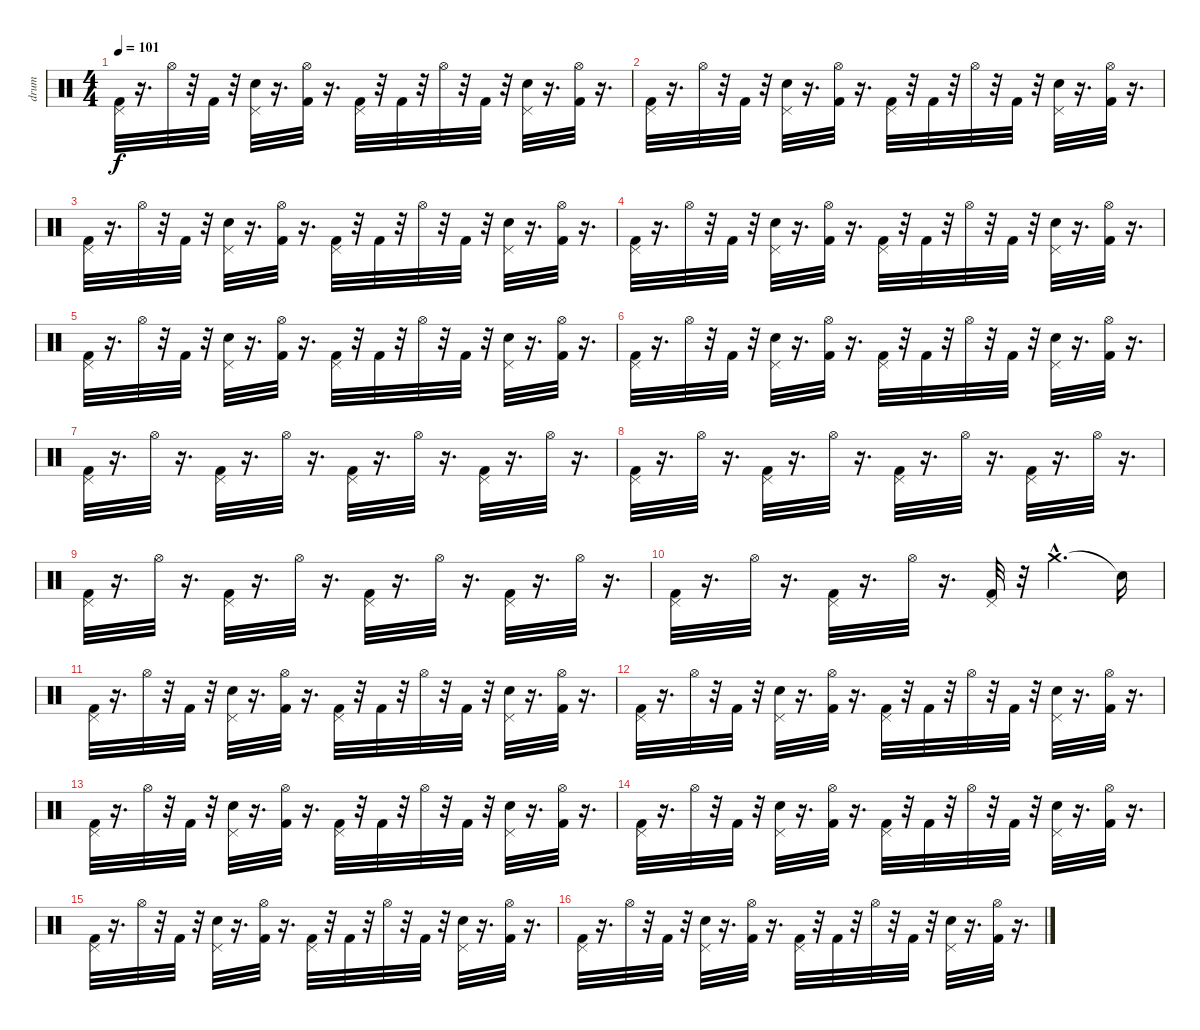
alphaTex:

\track ("drum" "drum") {instrument percussion}
\staff {score}
\articulation defaults
\ts (4 4)
\tempo 101
\clef neutral
\ks c
("Kick (hit) 2" "Pedal Hi-Hat (hit)").32{dy f} r.16{d} "Hi-Hat (open)".32 r.32 "Kick (hit) 2".32 r.32 ("Electric Snare (hit)" "Pedal Hi-Hat (hit)").32 r.16{d} ("Kick (hit) 2" "Hi-Hat (open)").32 r.16{d} ("Kick (hit) 2" "Pedal Hi-Hat (hit)").32 r.32 "Kick (hit) 2".32 r.32 "Hi-Hat (open)".32 r.32 "Kick (hit) 2".32 r.32 ("Electric Snare (hit)" "Pedal Hi-Hat (hit)").32 r.16{d} ("Kick (hit) 2" "Hi-Hat (open)").32 r.16{d} |
("Kick (hit) 2" "Pedal Hi-Hat (hit)").32 r.16{d} "Hi-Hat (open)".32 r.32 "Kick (hit) 2".32 r.32 ("Electric Snare (hit)" "Pedal Hi-Hat (hit)").32 r.16{d} ("Kick (hit) 2" "Hi-Hat (open)").32 r.16{d} ("Kick (hit) 2" "Pedal Hi-Hat (hit)").32 r.32 "Kick (hit) 2".32 r.32 "Hi-Hat (open)".32 r.32 "Kick (hit) 2".32 r.32 ("Electric Snare (hit)" "Pedal Hi-Hat (hit)").32 r.16{d} ("Kick (hit) 2" "Hi-Hat (open)").32 r.16{d} |
("Kick (hit) 2" "Pedal Hi-Hat (hit)").32 r.16{d} "Hi-Hat (open)".32 r.32 "Kick (hit) 2".32 r.32 ("Electric Snare (hit)" "Pedal Hi-Hat (hit)").32 r.16{d} ("Kick (hit) 2" "Hi-Hat (open)").32 r.16{d} ("Kick (hit) 2" "Pedal Hi-Hat (hit)").32 r.32 "Kick (hit) 2".32 r.32 "Hi-Hat (open)".32 r.32 "Kick (hit) 2".32 r.32 ("Electric Snare (hit)" "Pedal Hi-Hat (hit)").32 r.16{d} ("Kick (hit) 2" "Hi-Hat (open)").32 r.16{d} |
("Kick (hit) 2" "Pedal Hi-Hat (hit)").32 r.16{d} "Hi-Hat (open)".32 r.32 "Kick (hit) 2".32 r.32 ("Electric Snare (hit)" "Pedal Hi-Hat (hit)").32 r.16{d} ("Kick (hit) 2" "Hi-Hat (open)").32 r.16{d} ("Kick (hit) 2" "Pedal Hi-Hat (hit)").32 r.32 "Kick (hit) 2".32 r.32 "Hi-Hat (open)".32 r.32 "Kick (hit) 2".32 r.32 ("Electric Snare (hit)" "Pedal Hi-Hat (hit)").32 r.16{d} ("Kick (hit) 2" "Hi-Hat (open)").32 r.16{d} |
("Kick (hit) 2" "Pedal Hi-Hat (hit)").32 r.16{d} "Hi-Hat (open)".32 r.32 "Kick (hit) 2".32 r.32 ("Electric Snare (hit)" "Pedal Hi-Hat (hit)").32 r.16{d} ("Kick (hit) 2" "Hi-Hat (open)").32 r.16{d} ("Kick (hit) 2" "Pedal Hi-Hat (hit)").32 r.32 "Kick (hit) 2".32 r.32 "Hi-Hat (open)".32 r.32 "Kick (hit) 2".32 r.32 ("Electric Snare (hit)" "Pedal Hi-Hat (hit)").32 r.16{d} ("Kick (hit) 2" "Hi-Hat (open)").32 r.16{d} |
("Kick (hit) 2" "Pedal Hi-Hat (hit)").32 r.16{d} "Hi-Hat (open)".32 r.32 "Kick (hit) 2".32 r.32 ("Electric Snare (hit)" "Pedal Hi-Hat (hit)").32 r.16{d} ("Kick (hit) 2" "Hi-Hat (open)").32 r.16{d} ("Kick (hit) 2" "Pedal Hi-Hat (hit)").32 r.32 "Kick (hit) 2".32 r.32 "Hi-Hat (open)".32 r.32 "Kick (hit) 2".32 r.32 ("Electric Snare (hit)" "Pedal Hi-Hat (hit)").32 r.16{d} ("Kick (hit) 2" "Hi-Hat (open)").32 r.16{d} |
("Pedal Hi-Hat (hit)" "Kick (hit) 2").32 r.16{d} "Hi-Hat (open)".32 r.16{d} ("Pedal Hi-Hat (hit)" "Kick (hit) 2").32 r.16{d} "Hi-Hat (open)".32 r.16{d} ("Pedal Hi-Hat (hit)" "Kick (hit) 2").32 r.16{d} "Hi-Hat (open)".32 r.16{d} ("Pedal Hi-Hat (hit)" "Kick (hit) 2").32 r.16{d} "Hi-Hat (open)".32 r.16{d} |
("Pedal Hi-Hat (hit)" "Kick (hit) 2").32 r.16{d} "Hi-Hat (open)".32 r.16{d} ("Pedal Hi-Hat (hit)" "Kick (hit) 2").32 r.16{d} "Hi-Hat (open)".32 r.16{d} ("Pedal Hi-Hat (hit)" "Kick (hit) 2").32 r.16{d} "Hi-Hat (open)".32 r.16{d} ("Pedal Hi-Hat (hit)" "Kick (hit) 2").32 r.16{d} "Hi-Hat (open)".32 r.16{d} |
("Pedal Hi-Hat (hit)" "Kick (hit) 2").32 r.16{d} "Hi-Hat (open)".32 r.16{d} ("Pedal Hi-Hat (hit)" "Kick (hit) 2").32 r.16{d} "Hi-Hat (open)".32 r.16{d} ("Pedal Hi-Hat (hit)" "Kick (hit) 2").32 r.16{d} "Hi-Hat (open)".32 r.16{d} ("Pedal Hi-Hat (hit)" "Kick (hit) 2").32 r.16{d} "Hi-Hat (open)".32 r.16{d} |
("Pedal Hi-Hat (hit)" "Kick (hit) 2").32 r.16{d} "Hi-Hat (open)".32 r.16{d} ("Pedal Hi-Hat (hit)" "Kick (hit) 2").32 r.16{d} "Hi-Hat (open)".32 r.16{d} ("Pedal Hi-Hat (hit)" "Kick (hit) 2").32 r.32 "Crash medium (hit)"{hac}.4{d} "Snare (hit)"{t}.16 |
("Kick (hit) 2" "Pedal Hi-Hat (hit)").32 r.16{d} "Hi-Hat (open)".32 r.32 "Kick (hit) 2".32 r.32 ("Electric Snare (hit)" "Pedal Hi-Hat (hit)").32 r.16{d} ("Kick (hit) 2" "Hi-Hat (open)").32 r.16{d} ("Kick (hit) 2" "Pedal Hi-Hat (hit)").32 r.32 "Kick (hit) 2".32 r.32 "Hi-Hat (open)".32 r.32 "Kick (hit) 2".32 r.32 ("Electric Snare (hit)" "Pedal Hi-Hat (hit)").32 r.16{d} ("Kick (hit) 2" "Hi-Hat (open)").32 r.16{d} |
("Kick (hit) 2" "Pedal Hi-Hat (hit)").32 r.16{d} "Hi-Hat (open)".32 r.32 "Kick (hit) 2".32 r.32 ("Electric Snare (hit)" "Pedal Hi-Hat (hit)").32 r.16{d} ("Kick (hit) 2" "Hi-Hat (open)").32 r.16{d} ("Kick (hit) 2" "Pedal Hi-Hat (hit)").32 r.32 "Kick (hit) 2".32 r.32 "Hi-Hat (open)".32 r.32 "Kick (hit) 2".32 r.32 ("Electric Snare (hit)" "Pedal Hi-Hat (hit)").32 r.16{d} ("Kick (hit) 2" "Hi-Hat (open)").32 r.16{d} |
("Kick (hit) 2" "Pedal Hi-Hat (hit)").32 r.16{d} "Hi-Hat (open)".32 r.32 "Kick (hit) 2".32 r.32 ("Electric Snare (hit)" "Pedal Hi-Hat (hit)").32 r.16{d} ("Kick (hit) 2" "Hi-Hat (open)").32 r.16{d} ("Kick (hit) 2" "Pedal Hi-Hat (hit)").32 r.32 "Kick (hit) 2".32 r.32 "Hi-Hat (open)".32 r.32 "Kick (hit) 2".32 r.32 ("Electric Snare (hit)" "Pedal Hi-Hat (hit)").32 r.16{d} ("Kick (hit) 2" "Hi-Hat (open)").32 r.16{d} |
("Kick (hit) 2" "Pedal Hi-Hat (hit)").32 r.16{d} "Hi-Hat (open)".32 r.32 "Kick (hit) 2".32 r.32 ("Electric Snare (hit)" "Pedal Hi-Hat (hit)").32 r.16{d} ("Kick (hit) 2" "Hi-Hat (open)").32 r.16{d} ("Kick (hit) 2" "Pedal Hi-Hat (hit)").32 r.32 "Kick (hit) 2".32 r.32 "Hi-Hat (open)".32 r.32 "Kick (hit) 2".32 r.32 ("Electric Snare (hit)" "Pedal Hi-Hat (hit)").32 r.16{d} ("Kick (hit) 2" "Hi-Hat (open)").32 r.16{d} |
("Kick (hit) 2" "Pedal Hi-Hat (hit)").32 r.16{d} "Hi-Hat (open)".32 r.32 "Kick (hit) 2".32 r.32 ("Electric Snare (hit)" "Pedal Hi-Hat (hit)").32 r.16{d} ("Kick (hit) 2" "Hi-Hat (open)").32 r.16{d} ("Kick (hit) 2" "Pedal Hi-Hat (hit)").32 r.32 "Kick (hit) 2".32 r.32 "Hi-Hat (open)".32 r.32 "Kick (hit) 2".32 r.32 ("Electric Snare (hit)" "Pedal Hi-Hat (hit)").32 r.16{d} ("Kick (hit) 2" "Hi-Hat (open)").32 r.16{d} |
("Kick (hit) 2" "Pedal Hi-Hat (hit)").32 r.16{d} "Hi-Hat (open)".32 r.32 "Kick (hit) 2".32 r.32 ("Electric Snare (hit)" "Pedal Hi-Hat (hit)").32 r.16{d} ("Kick (hit) 2" "Hi-Hat (open)").32 r.16{d} ("Kick (hit) 2" "Pedal Hi-Hat (hit)").32 r.32 "Kick (hit) 2".32 r.32 "Hi-Hat (open)".32 r.32 "Kick (hit) 2".32 r.32 ("Electric Snare (hit)" "Pedal Hi-Hat (hit)").32 r.16{d} ("Kick (hit) 2" "Hi-Hat (open)").32 r.16{d}
